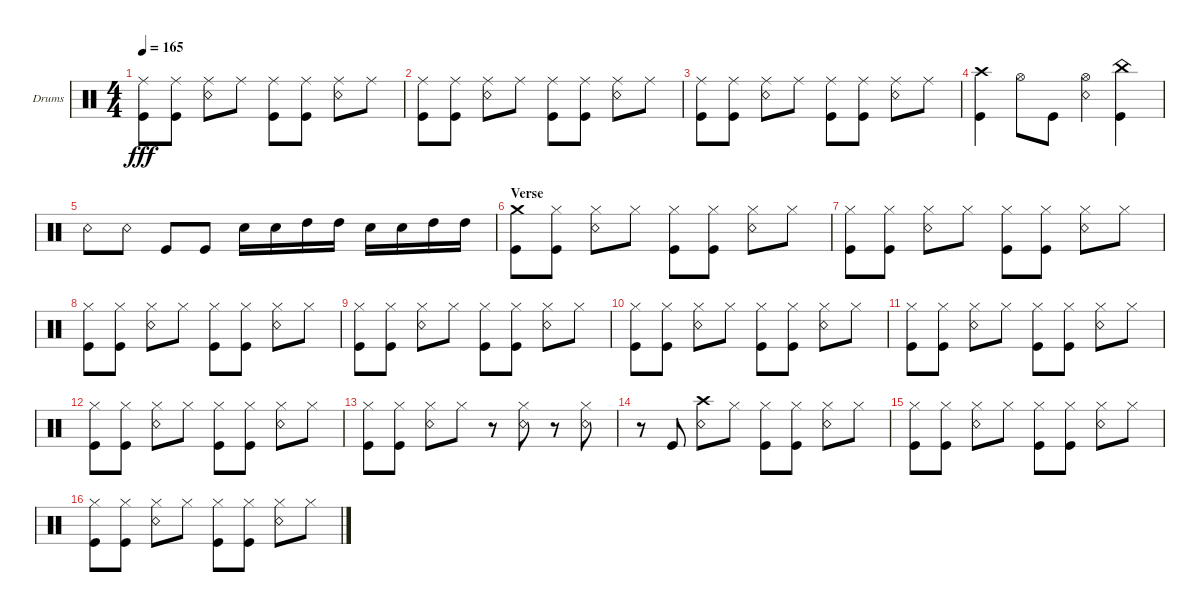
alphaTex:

\defaultSystemsLayout 4
\bracketExtendMode groupsimilarinstruments
\firstSystemTrackNameOrientation horizontal
\otherSystemsTrackNameOrientation horizontal
\track ("Drums" "Drums") {instrument percussion}
\staff {score}
\articulation defaults
\ts (4 4)
\tempo 165
\clef neutral
\ks c
("Ride (middle)" "Kick (hit)").8{dy fff} ("Ride (middle)" "Kick (hit)").8 ("Ride (middle)" "Snare (rim shot)").8 "Ride (middle)".8 ("Ride (middle)" "Kick (hit)").8 ("Ride (middle)" "Kick (hit)").8 ("Ride (middle)" "Snare (rim shot)").8 "Ride (middle)".8 |
("Ride (middle)" "Kick (hit)").8 ("Ride (middle)" "Kick (hit)").8 ("Ride (middle)" "Snare (rim shot)").8 "Ride (middle)".8 ("Ride (middle)" "Kick (hit)").8 ("Ride (middle)" "Kick (hit)").8 ("Ride (middle)" "Snare (rim shot)").8 "Ride (middle)".8 |
("Ride (middle)" "Kick (hit)").8 ("Ride (middle)" "Kick (hit)").8 ("Ride (middle)" "Snare (rim shot)").8 "Ride (middle)".8 ("Ride (middle)" "Kick (hit)").8 ("Ride (middle)" "Kick (hit)").8 ("Ride (middle)" "Snare (rim shot)").8 "Ride (middle)".8 |
("Kick (hit)" "Crash high (hit)").4 "Hi-Hat (open)".8 "Kick (hit)".8 ("Hi-Hat (open)" "Snare (rim shot)").4 ("Kick (hit)" "China (hit)").4 |
"Snare (rim shot)".8 "Snare (rim shot)".8 "Kick (hit)".8 "Kick (hit)".8 "Snare (hit) 2".16 "Snare (hit) 2".16 "High Tom (hit)".16 "High Tom (hit)".16 "Snare (hit) 2".16 "Snare (hit) 2".16 "High Tom (hit)".16 "High Tom (hit)".16 |
\section ("" "Verse")
("Kick (hit)" "Crash medium (hit)").8 ("Kick (hit)" "Hi-Hat (closed)").8 ("Snare (rim shot)" "Hi-Hat (closed)").8 "Hi-Hat (closed)".8 ("Kick (hit)" "Hi-Hat (closed)").8 ("Kick (hit)" "Hi-Hat (closed)").8 ("Snare (rim shot)" "Hi-Hat (closed)").8 "Hi-Hat (closed)".8 |
("Kick (hit)" "Hi-Hat (closed)").8 ("Kick (hit)" "Hi-Hat (closed)").8 ("Snare (rim shot)" "Hi-Hat (closed)").8 "Hi-Hat (closed)".8 ("Kick (hit)" "Hi-Hat (closed)").8 ("Kick (hit)" "Hi-Hat (closed)").8 ("Snare (rim shot)" "Hi-Hat (closed)").8 "Hi-Hat (closed)".8 |
("Kick (hit)" "Hi-Hat (closed)").8 ("Kick (hit)" "Hi-Hat (closed)").8 ("Snare (rim shot)" "Hi-Hat (closed)").8 "Hi-Hat (closed)".8 ("Kick (hit)" "Hi-Hat (closed)").8 ("Kick (hit)" "Hi-Hat (closed)").8 ("Snare (rim shot)" "Hi-Hat (closed)").8 "Hi-Hat (closed)".8 |
("Kick (hit)" "Hi-Hat (closed)").8 ("Kick (hit)" "Hi-Hat (closed)").8 ("Snare (rim shot)" "Hi-Hat (closed)").8 "Hi-Hat (closed)".8 ("Kick (hit)" "Hi-Hat (closed)").8 ("Kick (hit)" "Hi-Hat (closed)").8 ("Snare (rim shot)" "Hi-Hat (closed)").8 "Hi-Hat (closed)".8 |
("Kick (hit)" "Hi-Hat (closed)").8 ("Kick (hit)" "Hi-Hat (closed)").8 ("Snare (rim shot)" "Hi-Hat (closed)").8 "Hi-Hat (closed)".8 ("Kick (hit)" "Hi-Hat (closed)").8 ("Kick (hit)" "Hi-Hat (closed)").8 ("Snare (rim shot)" "Hi-Hat (closed)").8 "Hi-Hat (closed)".8 |
("Kick (hit)" "Hi-Hat (closed)").8 ("Kick (hit)" "Hi-Hat (closed)").8 ("Snare (rim shot)" "Hi-Hat (closed)").8 "Hi-Hat (closed)".8 ("Kick (hit)" "Hi-Hat (closed)").8 ("Kick (hit)" "Hi-Hat (closed)").8 ("Snare (rim shot)" "Hi-Hat (closed)").8 "Hi-Hat (closed)".8 |
("Kick (hit)" "Hi-Hat (closed)").8 ("Kick (hit)" "Hi-Hat (closed)").8 ("Snare (rim shot)" "Hi-Hat (closed)").8 "Hi-Hat (closed)".8 ("Kick (hit)" "Hi-Hat (closed)").8 ("Kick (hit)" "Hi-Hat (closed)").8 ("Snare (rim shot)" "Hi-Hat (closed)").8 "Hi-Hat (closed)".8 |
("Kick (hit)" "Hi-Hat (closed)").8 ("Kick (hit)" "Hi-Hat (closed)").8 ("Snare (rim shot)" "Hi-Hat (closed)").8 "Hi-Hat (closed)".8 r.8 ("Hi-Hat (closed)" "Snare (rim shot)").8 r.8 ("Hi-Hat (closed)" "Snare (rim shot)").8 |
r.8 "Kick (hit)".8 ("Snare (rim shot)" "Crash high (hit)").8 "Hi-Hat (closed)".8 ("Hi-Hat (closed)" "Kick (hit)").8 ("Hi-Hat (closed)" "Kick (hit)").8 ("Hi-Hat (closed)" "Snare (rim shot)").8 "Hi-Hat (closed)".8 |
("Kick (hit)" "Hi-Hat (closed)").8 ("Kick (hit)" "Hi-Hat (closed)").8 ("Snare (rim shot)" "Hi-Hat (closed)").8 "Hi-Hat (closed)".8 ("Kick (hit)" "Hi-Hat (closed)").8 ("Kick (hit)" "Hi-Hat (closed)").8 ("Snare (rim shot)" "Hi-Hat (closed)").8 "Hi-Hat (closed)".8 |
("Kick (hit)" "Hi-Hat (closed)").8 ("Kick (hit)" "Hi-Hat (closed)").8 ("Snare (rim shot)" "Hi-Hat (closed)").8 "Hi-Hat (closed)".8 ("Kick (hit)" "Hi-Hat (closed)").8 ("Kick (hit)" "Hi-Hat (closed)").8 ("Snare (rim shot)" "Hi-Hat (closed)").8 "Hi-Hat (closed)".8
